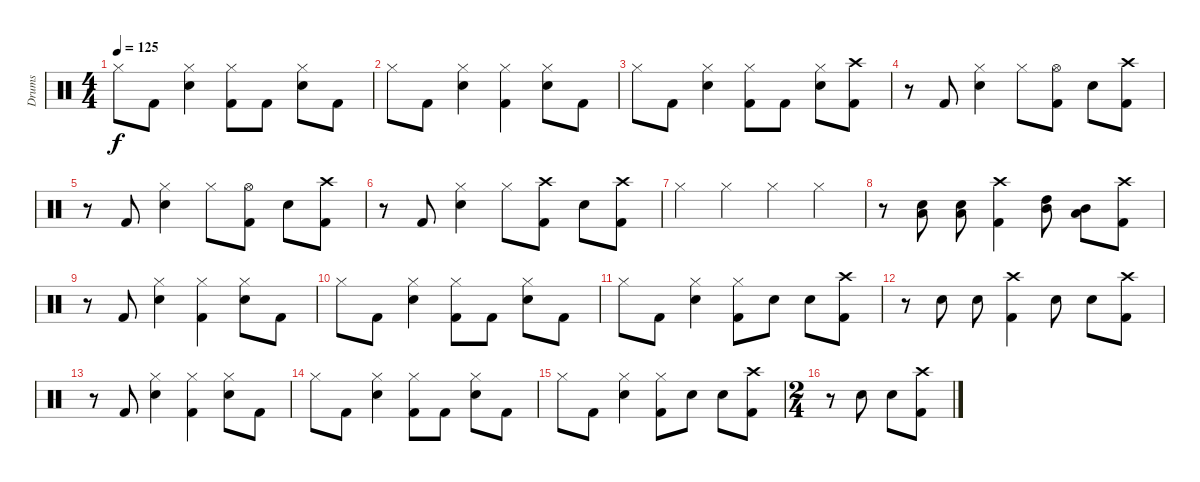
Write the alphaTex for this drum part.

\track ("Drums" "Drums") {instrument percussion}
\staff {score}
\articulation defaults
\ts (4 4)
\tempo 125
\clef neutral
\ks c "Hi-Hat (closed)".8{dy f} "Kick (hit) 2".8
("Hi-Hat (closed)" "Electric Snare (hit)").4 ("Hi-Hat (closed)" "Kick (hit) 2").8 "Kick (hit) 2".8 ("Hi-Hat (closed)" "Electric Snare (hit)").8 "Kick (hit) 2".8 |
"Hi-Hat (closed)".8 "Kick (hit) 2".8 ("Hi-Hat (closed)" "Electric Snare (hit)").4 ("Hi-Hat (closed)" "Kick (hit) 2").4 ("Hi-Hat (closed)" "Electric Snare (hit)").8 "Kick (hit) 2".8 |
"Hi-Hat (closed)".8 "Kick (hit) 2".8 ("Hi-Hat (closed)" "Electric Snare (hit)").4 ("Hi-Hat (closed)" "Kick (hit) 2").8 "Kick (hit) 2".8 ("Hi-Hat (closed)" "Electric Snare (hit)").8 ("Crash high (hit)" "Kick (hit) 2").8 |
r.8 "Kick (hit) 2".8 ("Hi-Hat (closed)" "Electric Snare (hit)").4 "Hi-Hat (closed)".8 ("Hi-Hat (open)" "Kick (hit) 2").8 "Electric Snare (hit)".8 ("Crash high (hit)" "Kick (hit) 2").8 |
r.8 "Kick (hit) 2".8 ("Hi-Hat (closed)" "Electric Snare (hit)").4 "Hi-Hat (closed)".8 ("Hi-Hat (open)" "Kick (hit) 2").8 "Electric Snare (hit)".8 ("Crash high (hit)" "Kick (hit) 2").8 |
r.8 "Kick (hit) 2".8 ("Hi-Hat (closed)" "Electric Snare (hit)").4 "Hi-Hat (closed)".8 ("Crash high (hit)" "Kick (hit) 2").8 "Electric Snare (hit)".8 ("Crash high (hit)" "Kick (hit) 2").8 |
"Hi-Hat (closed)".4 "Hi-Hat (closed)".4 "Hi-Hat (closed)".4 "Hi-Hat (closed)".4 |
r.8 ("Electric Snare (hit)" "Low Tom (hit)").8 ("Electric Snare (hit)" "Low Tom (hit)").8 ("Crash high (hit)" "Kick (hit) 2").4 ("Mid Tom (hit)" "High Tom (hit)").8 ("Mid Tom (hit)" "Low Tom (hit)").8 ("Crash high (hit)" "Kick (hit) 2").8 |
r.8 "Kick (hit) 2".8 ("Hi-Hat (closed)" "Electric Snare (hit)").4 ("Hi-Hat (closed)" "Kick (hit) 2").4 ("Hi-Hat (closed)" "Electric Snare (hit)").8 "Kick (hit) 2".8 |
"Hi-Hat (closed)".8 "Kick (hit) 2".8 ("Hi-Hat (closed)" "Electric Snare (hit)").4 ("Hi-Hat (closed)" "Kick (hit) 2").8 "Kick (hit) 2".8 ("Hi-Hat (closed)" "Electric Snare (hit)").8 "Kick (hit) 2".8 |
"Hi-Hat (closed)".8 "Kick (hit) 2".8 ("Hi-Hat (closed)" "Electric Snare (hit)").4 ("Hi-Hat (closed)" "Kick (hit) 2").8 "Electric Snare (hit)".8 "Electric Snare (hit)".8 ("Crash high (hit)" "Kick (hit) 2").8 |
r.8 "Electric Snare (hit)".8 "Electric Snare (hit)".8 ("Crash high (hit)" "Kick (hit) 2").4 "Electric Snare (hit)".8 "Electric Snare (hit)".8 ("Crash high (hit)" "Kick (hit) 2").8 |
r.8 "Kick (hit) 2".8 ("Hi-Hat (closed)" "Electric Snare (hit)").4 ("Hi-Hat (closed)" "Kick (hit) 2").4 ("Hi-Hat (closed)" "Electric Snare (hit)").8 "Kick (hit) 2".8 |
"Hi-Hat (closed)".8 "Kick (hit) 2".8 ("Hi-Hat (closed)" "Electric Snare (hit)").4 ("Hi-Hat (closed)" "Kick (hit) 2").8 "Kick (hit) 2".8 ("Hi-Hat (closed)" "Electric Snare (hit)").8 "Kick (hit) 2".8 |
"Hi-Hat (closed)".8 "Kick (hit) 2".8 ("Hi-Hat (closed)" "Electric Snare (hit)").4 ("Hi-Hat (closed)" "Kick (hit) 2").8 "Electric Snare (hit)".8 "Electric Snare (hit)".8 ("Crash high (hit)" "Kick (hit) 2").8 |
\ts (2 4)
r.8 "Electric Snare (hit)".8 "Electric Snare (hit)".8 ("Crash high (hit)" "Kick (hit) 2").8
